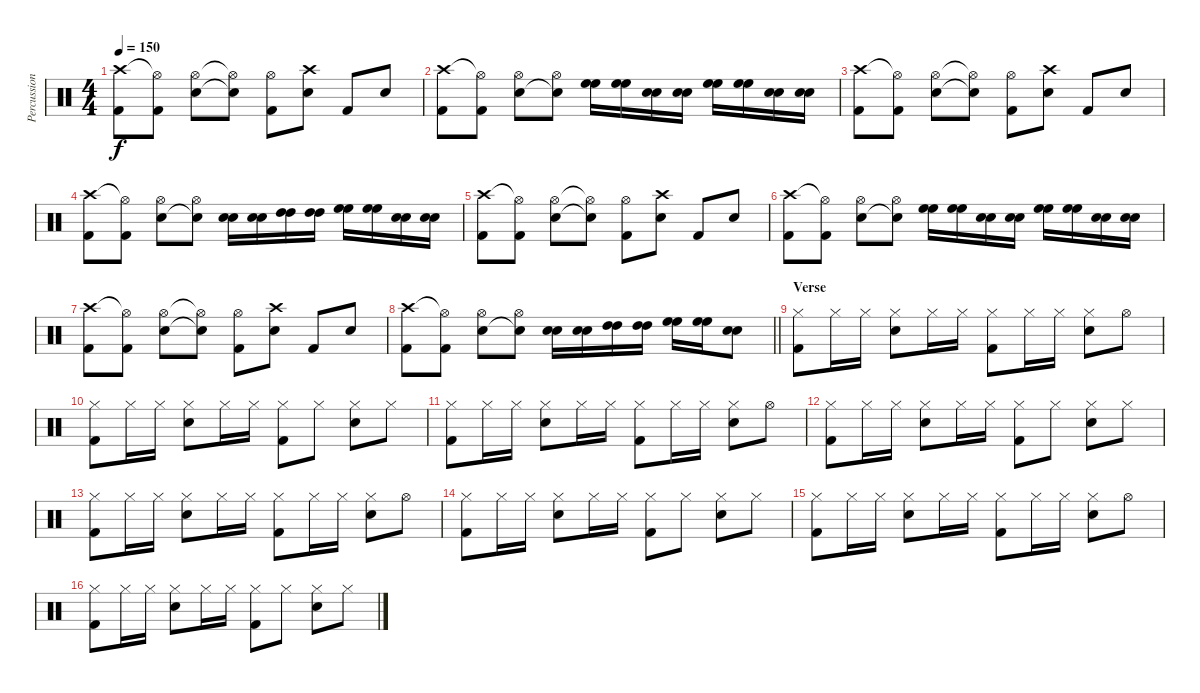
\track ("Percussion" "Percussion") {instrument percussion}
\staff {score}
\articulation defaults
\ts (4 4)
\tempo 150
\clef neutral
\ks c
("Crash high (hit)" "Kick (hit) 2").8{dy f} ("Hi-Hat (open)"{t} "Kick (hit) 2").8 ("Hi-Hat (open)" "Snare (hit) 2").8 ("Hi-Hat (open)"{t} "Snare (hit) 2"{t}).8 ("Hi-Hat (open)" "Kick (hit) 2").8 ("Crash high (hit)" "Snare (hit) 2").8 "Kick (hit) 2".8 "Snare (hit) 2".8 |
("Crash high (hit)" "Kick (hit) 2").8 ("Hi-Hat (open)"{t} "Kick (hit) 2").8 ("Hi-Hat (open)" "Snare (hit) 2").8 ("Hi-Hat (open)" "Snare (hit) 2"{t}).8 ("High Floor Tom (hit)" "High Floor Tom (hit)").16 ("High Floor Tom (hit)" "High Floor Tom (hit)").16 ("Snare (hit) 2" "Snare (hit) 2").16 ("Snare (hit) 2" "Snare (hit) 2").16 ("High Floor Tom (hit)" "High Floor Tom (hit)").16 ("High Floor Tom (hit)" "High Floor Tom (hit)").16 ("Snare (hit) 2" "Snare (hit) 2").16 ("Snare (hit) 2" "Snare (hit) 2").16 |
("Crash high (hit)" "Kick (hit) 2").8 ("Hi-Hat (open)"{t} "Kick (hit) 2").8 ("Hi-Hat (open)" "Snare (hit) 2").8 ("Hi-Hat (open)"{t} "Snare (hit) 2"{t}).8 ("Hi-Hat (open)" "Kick (hit) 2").8 ("Crash high (hit)" "Snare (hit) 2").8 "Kick (hit) 2".8 "Snare (hit) 2".8 |
("Crash high (hit)" "Kick (hit) 2").8 ("Hi-Hat (open)"{t} "Kick (hit) 2").8 ("Hi-Hat (open)" "Snare (hit) 2").8 ("Hi-Hat (open)" "Snare (hit) 2"{t}).8 ("Snare (hit) 2" "Snare (hit) 2").16 ("Snare (hit) 2" "Snare (hit) 2").16 ("High Tom (hit)" "High Tom (hit)").16 ("High Tom (hit)" "High Tom (hit)").16 ("High Floor Tom (hit)" "High Floor Tom (hit)").16 ("High Floor Tom (hit)" "High Floor Tom (hit)").16 ("Snare (hit) 2" "Snare (hit) 2").16 ("Snare (hit) 2" "Snare (hit) 2").16 |
("Crash high (hit)" "Kick (hit) 2").8 ("Hi-Hat (open)"{t} "Kick (hit) 2").8 ("Hi-Hat (open)" "Snare (hit) 2").8 ("Hi-Hat (open)"{t} "Snare (hit) 2"{t}).8 ("Hi-Hat (open)" "Kick (hit) 2").8 ("Crash high (hit)" "Snare (hit) 2").8 "Kick (hit) 2".8 "Snare (hit) 2".8 |
("Crash high (hit)" "Kick (hit) 2").8 ("Hi-Hat (open)"{t} "Kick (hit) 2").8 ("Hi-Hat (open)" "Snare (hit) 2").8 ("Hi-Hat (open)" "Snare (hit) 2"{t}).8 ("High Floor Tom (hit)" "High Floor Tom (hit)").16 ("High Floor Tom (hit)" "High Floor Tom (hit)").16 ("Snare (hit) 2" "Snare (hit) 2").16 ("Snare (hit) 2" "Snare (hit) 2").16 ("High Floor Tom (hit)" "High Floor Tom (hit)").16 ("High Floor Tom (hit)" "High Floor Tom (hit)").16 ("Snare (hit) 2" "Snare (hit) 2").16 ("Snare (hit) 2" "Snare (hit) 2").16 |
("Crash high (hit)" "Kick (hit) 2").8 ("Hi-Hat (open)"{t} "Kick (hit) 2").8 ("Hi-Hat (open)" "Snare (hit) 2").8 ("Hi-Hat (open)"{t} "Snare (hit) 2"{t}).8 ("Hi-Hat (open)" "Kick (hit) 2").8 ("Crash high (hit)" "Snare (hit) 2").8 "Kick (hit) 2".8 "Snare (hit) 2".8 |
\barLineRight lightlight
("Crash high (hit)" "Kick (hit) 2").8 ("Hi-Hat (open)"{t} "Kick (hit) 2").8 ("Hi-Hat (open)" "Snare (hit) 2").8 ("Hi-Hat (open)" "Snare (hit) 2"{t}).8 ("Snare (hit) 2" "Snare (hit) 2").16 ("Snare (hit) 2" "Snare (hit) 2").16 ("High Tom (hit)" "High Tom (hit)").16 ("High Tom (hit)" "High Tom (hit)").16 ("High Floor Tom (hit)" "High Floor Tom (hit)").16 ("High Floor Tom (hit)" "High Floor Tom (hit)").16 ("Snare (hit) 2" "Snare (hit) 2").8 |
\section ("" "Verse")
("Hi-Hat (closed)" "Kick (hit) 2").8 "Hi-Hat (closed)".16 "Hi-Hat (closed)".16 ("Hi-Hat (closed)" "Snare (hit) 2").8 "Hi-Hat (closed)".16 "Hi-Hat (closed)".16 ("Hi-Hat (closed)" "Kick (hit) 2").8 "Hi-Hat (closed)".16 "Hi-Hat (closed)".16 ("Hi-Hat (closed)" "Snare (hit) 2").8 "Hi-Hat (open)".8 |
("Hi-Hat (closed)" "Kick (hit) 2").8 "Hi-Hat (closed)".16 "Hi-Hat (closed)".16 ("Hi-Hat (closed)" "Snare (hit) 2").8 "Hi-Hat (closed)".16 "Hi-Hat (closed)".16 ("Hi-Hat (closed)" "Kick (hit) 2").8 "Hi-Hat (closed)".8 ("Hi-Hat (closed)" "Snare (hit) 2").8 "Hi-Hat (closed)".8 |
("Hi-Hat (closed)" "Kick (hit) 2").8 "Hi-Hat (closed)".16 "Hi-Hat (closed)".16 ("Hi-Hat (closed)" "Snare (hit) 2").8 "Hi-Hat (closed)".16 "Hi-Hat (closed)".16 ("Hi-Hat (closed)" "Kick (hit) 2").8 "Hi-Hat (closed)".16 "Hi-Hat (closed)".16 ("Hi-Hat (closed)" "Snare (hit) 2").8 "Hi-Hat (open)".8 |
("Hi-Hat (closed)" "Kick (hit) 2").8 "Hi-Hat (closed)".16 "Hi-Hat (closed)".16 ("Hi-Hat (closed)" "Snare (hit) 2").8 "Hi-Hat (closed)".16 "Hi-Hat (closed)".16 ("Hi-Hat (closed)" "Kick (hit) 2").8 "Hi-Hat (closed)".8 ("Hi-Hat (closed)" "Snare (hit) 2").8 "Hi-Hat (closed)".8 |
("Hi-Hat (closed)" "Kick (hit) 2").8 "Hi-Hat (closed)".16 "Hi-Hat (closed)".16 ("Hi-Hat (closed)" "Snare (hit) 2").8 "Hi-Hat (closed)".16 "Hi-Hat (closed)".16 ("Hi-Hat (closed)" "Kick (hit) 2").8 "Hi-Hat (closed)".16 "Hi-Hat (closed)".16 ("Hi-Hat (closed)" "Snare (hit) 2").8 "Hi-Hat (open)".8 |
("Hi-Hat (closed)" "Kick (hit) 2").8 "Hi-Hat (closed)".16 "Hi-Hat (closed)".16 ("Hi-Hat (closed)" "Snare (hit) 2").8 "Hi-Hat (closed)".16 "Hi-Hat (closed)".16 ("Hi-Hat (closed)" "Kick (hit) 2").8 "Hi-Hat (closed)".8 ("Hi-Hat (closed)" "Snare (hit) 2").8 "Hi-Hat (closed)".8 |
("Hi-Hat (closed)" "Kick (hit) 2").8 "Hi-Hat (closed)".16 "Hi-Hat (closed)".16 ("Hi-Hat (closed)" "Snare (hit) 2").8 "Hi-Hat (closed)".16 "Hi-Hat (closed)".16 ("Hi-Hat (closed)" "Kick (hit) 2").8 "Hi-Hat (closed)".16 "Hi-Hat (closed)".16 ("Hi-Hat (closed)" "Snare (hit) 2").8 "Hi-Hat (open)".8 |
("Hi-Hat (closed)" "Kick (hit) 2").8 "Hi-Hat (closed)".16 "Hi-Hat (closed)".16 ("Hi-Hat (closed)" "Snare (hit) 2").8 "Hi-Hat (closed)".16 "Hi-Hat (closed)".16 ("Hi-Hat (closed)" "Kick (hit) 2").8 "Hi-Hat (closed)".8 ("Hi-Hat (closed)" "Snare (hit) 2").8 "Hi-Hat (closed)".8
